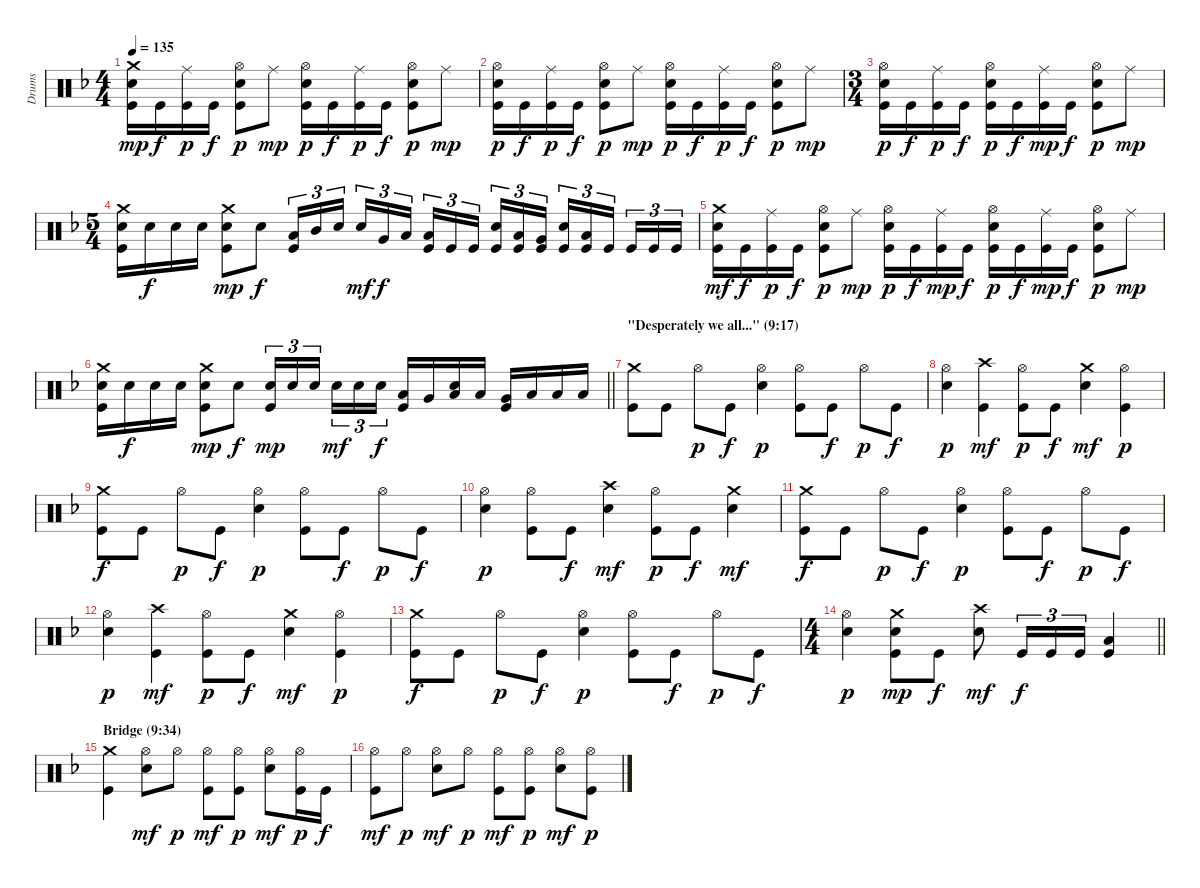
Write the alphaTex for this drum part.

\track ("Drums" "Drums") {instrument percussion}
\staff {score}
\articulation defaults
\ts (4 4)
\tempo 135
\clef neutral
\ks dminor
("Crash medium (hit)" "Snare (hit) 2" "Kick (hit)").16{dy mp} "Kick (hit)".16{dy f} ("Ride (middle)" "Kick (hit)").16{dy p} "Kick (hit)".16{dy f} ("Hi-Hat (open)" "Snare (hit) 2" "Kick (hit)").8{dy p} "Ride (middle)".8{dy mp} ("Hi-Hat (open)" "Snare (hit) 2" "Kick (hit)").16{dy p} "Kick (hit)".16{dy f} ("Ride (middle)" "Kick (hit)").16{dy p} "Kick (hit)".16{dy f} ("Hi-Hat (open)" "Snare (hit) 2" "Kick (hit)").8{dy p} "Ride (middle)".8{dy mp} |
("Hi-Hat (open)" "Snare (hit) 2" "Kick (hit)").16{dy p} "Kick (hit)".16{dy f} ("Ride (middle)" "Kick (hit)").16{dy p} "Kick (hit)".16{dy f} ("Hi-Hat (open)" "Snare (hit) 2" "Kick (hit)").8{dy p} "Ride (middle)".8{dy mp} ("Hi-Hat (open)" "Snare (hit) 2" "Kick (hit)").16{dy p} "Kick (hit)".16{dy f} ("Ride (middle)" "Kick (hit)").16{dy p} "Kick (hit)".16{dy f} ("Hi-Hat (open)" "Snare (hit) 2" "Kick (hit)").8{dy p} "Ride (middle)".8{dy mp} |
\ts (3 4)
("Hi-Hat (open)" "Snare (hit) 2" "Kick (hit)").16{dy p} "Kick (hit)".16{dy f} ("Ride (middle)" "Kick (hit)").16{dy p} "Kick (hit)".16{dy f} ("Hi-Hat (open)" "Snare (hit) 2" "Kick (hit)").16{dy p} "Kick (hit)".16{dy f} ("Ride (middle)" "Kick (hit)").16{dy mp} "Kick (hit)".16{dy f} ("Hi-Hat (open)" "Snare (hit) 2" "Kick (hit)").8{dy p} "Ride (middle)".8{dy mp} |
\ts (5 4)
("Crash medium (hit)" "Snare (hit) 2" "Kick (hit)").16 "Snare (hit) 2".16{dy f} "Snare (hit) 2".16 "Snare (hit) 2".16 ("Crash medium (hit)" "Snare (hit) 2" "Kick (hit)").8{dy mp} "Snare (hit) 2".8{dy f} ("Low Tom (hit)" "Kick (hit)").16{tu (3 2)} "Mid Tom (hit)".16{tu (3 2)} "Snare (hit) 2".16{tu (3 2) beam splitsecondary} "Snare (hit) 2".16{tu (3 2) dy mf} "Very Low Tom (hit)".16{tu (3 2) dy f} "Low Floor Tom (hit)".16{tu (3 2)} ("Low Floor Tom (hit)" "Kick (hit)").16{tu (3 2)} "Kick (hit)".16{tu (3 2)} "Kick (hit)".16{tu (3 2) beam splitsecondary} ("Snare (hit) 2" "Kick (hit)").16{tu (3 2)} ("Low Tom (hit)" "Kick (hit)").16{tu (3 2)} ("Very Low Tom (hit)" "Kick (hit)").16{tu (3 2)} ("Snare (hit) 2" "Kick (hit)").16{tu (3 2)} ("Low Floor Tom (hit)" "Kick (hit)").16{tu (3 2)} "Kick (hit)".16{tu (3 2) beam splitsecondary} "Kick (hit)".16{tu (3 2)} "Kick (hit)".16{tu (3 2)} "Kick (hit)".16{tu (3 2)} |
("Crash medium (hit)" "Snare (hit) 2" "Kick (hit)").16{dy mf} "Kick (hit)".16{dy f} ("Ride (middle)" "Kick (hit)").16{dy p} "Kick (hit)".16{dy f} ("Hi-Hat (open)" "Snare (hit) 2" "Kick (hit)").8{dy p} "Ride (middle)".8{dy mp} ("Hi-Hat (open)" "Snare (hit) 2" "Kick (hit)").16{dy p} "Kick (hit)".16{dy f} ("Ride (middle)" "Kick (hit)").16{dy mp} "Kick (hit)".16{dy f} ("Hi-Hat (open)" "Snare (hit) 2" "Kick (hit)").16{dy p} "Kick (hit)".16{dy f} ("Ride (middle)" "Kick (hit)").16{dy mp} "Kick (hit)".16{dy f} ("Hi-Hat (open)" "Snare (hit) 2" "Kick (hit)").8{dy p} "Ride (middle)".8{dy mp} |
\barLineRight lightlight
("Crash medium (hit)" "Snare (hit) 2" "Kick (hit)").16 "Snare (hit) 2".16{dy f} "Snare (hit) 2".16 "Snare (hit) 2".16 ("Crash medium (hit)" "Snare (hit) 2" "Kick (hit)").8{dy mp} "Snare (hit) 2".8{dy f} ("Snare (hit) 2" "Kick (hit)").16{tu (3 2) dy mp} "Snare (hit) 2".16{tu (3 2)} "Snare (hit) 2".16{tu (3 2) beam splitsecondary} "Snare (hit) 2".16{tu (3 2) dy mf} "Snare (hit) 2".16{tu (3 2)} "Snare (hit) 2".16{tu (3 2) dy f} ("Low Tom (hit)" "Kick (hit)").16 "Very Low Tom (hit)".16 ("Low Floor Tom (hit)" "Snare (hit) 2").16 "Low Floor Tom (hit)".16 ("Very Low Tom (hit)" "Kick (hit)").16 "Low Floor Tom (hit)".16 "Low Floor Tom (hit)".16 "Low Floor Tom (hit)".16 |
\section ("" "\"Desperately we all...\" (9:17)")
("Crash medium (hit)" "Kick (hit)").8 "Kick (hit)".8 "Hi-Hat (open)".8{dy p} "Kick (hit)".8{dy f} ("Hi-Hat (open)" "Snare (hit) 2").4{dy p} ("Hi-Hat (open)" "Kick (hit)").8 "Kick (hit)".8{dy f} "Hi-Hat (open)".8{dy p} "Kick (hit)".8{dy f} |
("Hi-Hat (open)" "Snare (hit) 2").4{dy p} ("Crash high (hit)" "Kick (hit)").4{dy mf} ("Hi-Hat (open)" "Kick (hit)").8{dy p} "Kick (hit)".8{dy f} ("Crash medium (hit)" "Snare (hit) 2").4{dy mf} ("Hi-Hat (open)" "Kick (hit)").4{dy p} |
("Crash medium (hit)" "Kick (hit)").8{dy f} "Kick (hit)".8 "Hi-Hat (open)".8{dy p} "Kick (hit)".8{dy f} ("Hi-Hat (open)" "Snare (hit) 2").4{dy p} ("Hi-Hat (open)" "Kick (hit)").8 "Kick (hit)".8{dy f} "Hi-Hat (open)".8{dy p} "Kick (hit)".8{dy f} |
("Hi-Hat (open)" "Snare (hit) 2").4{dy p} ("Hi-Hat (open)" "Kick (hit)").8 "Kick (hit)".8{dy f} ("Crash high (hit)" "Snare (hit) 2").4{dy mf} ("Hi-Hat (open)" "Kick (hit)").8{dy p} "Kick (hit)".8{dy f} ("Crash medium (hit)" "Snare (hit) 2").4{dy mf} |
("Crash medium (hit)" "Kick (hit)").8{dy f} "Kick (hit)".8 "Hi-Hat (open)".8{dy p} "Kick (hit)".8{dy f} ("Hi-Hat (open)" "Snare (hit) 2").4{dy p} ("Hi-Hat (open)" "Kick (hit)").8 "Kick (hit)".8{dy f} "Hi-Hat (open)".8{dy p} "Kick (hit)".8{dy f} |
("Hi-Hat (open)" "Snare (hit) 2").4{dy p} ("Crash high (hit)" "Kick (hit)").4{dy mf} ("Hi-Hat (open)" "Kick (hit)").8{dy p} "Kick (hit)".8{dy f} ("Crash medium (hit)" "Snare (hit) 2").4{dy mf} ("Hi-Hat (open)" "Kick (hit)").4{dy p} |
("Crash medium (hit)" "Kick (hit)").8{dy f} "Kick (hit)".8 "Hi-Hat (open)".8{dy p} "Kick (hit)".8{dy f} ("Hi-Hat (open)" "Snare (hit) 2").4{dy p} ("Hi-Hat (open)" "Kick (hit)").8 "Kick (hit)".8{dy f} "Hi-Hat (open)".8{dy p} "Kick (hit)".8{dy f} |
\ts (4 4)
\barLineRight lightlight
("Hi-Hat (open)" "Snare (hit) 2").4{dy p} ("Crash medium (hit)" "Snare (hit) 2" "Kick (hit)").8{dy mp} "Kick (hit)".8{dy f} ("Crash high (hit)" "Snare (hit) 2").8{dy mf} "Kick (hit)".16{tu (3 2) dy f} "Kick (hit)".16{tu (3 2)} "Kick (hit)".16{tu (3 2)} ("Low Floor Tom (hit)" "Kick (hit)").4 |
\section ("" "Bridge (9:34)")
("Crash medium (hit)" "Kick (hit)").4 ("Hi-Hat (open)" "Snare (hit) 2").8{dy mf} "Hi-Hat (open)".8{dy p} ("Hi-Hat (open)" "Kick (hit)").8{dy mf} ("Hi-Hat (open)" "Kick (hit)").8{dy p} ("Hi-Hat (open)" "Snare (hit) 2").8{dy mf} ("Hi-Hat (open)" "Kick (hit)").16{dy p} "Kick (hit)".16{dy f} |
("Hi-Hat (open)" "Kick (hit)").8{dy mf} "Hi-Hat (open)".8{dy p} ("Hi-Hat (open)" "Snare (hit) 2").8{dy mf} "Hi-Hat (open)".8{dy p} ("Hi-Hat (open)" "Kick (hit)").8{dy mf} ("Hi-Hat (open)" "Kick (hit)").8{dy p} ("Hi-Hat (open)" "Snare (hit) 2").8{dy mf} ("Hi-Hat (open)" "Kick (hit)").8{dy p}
